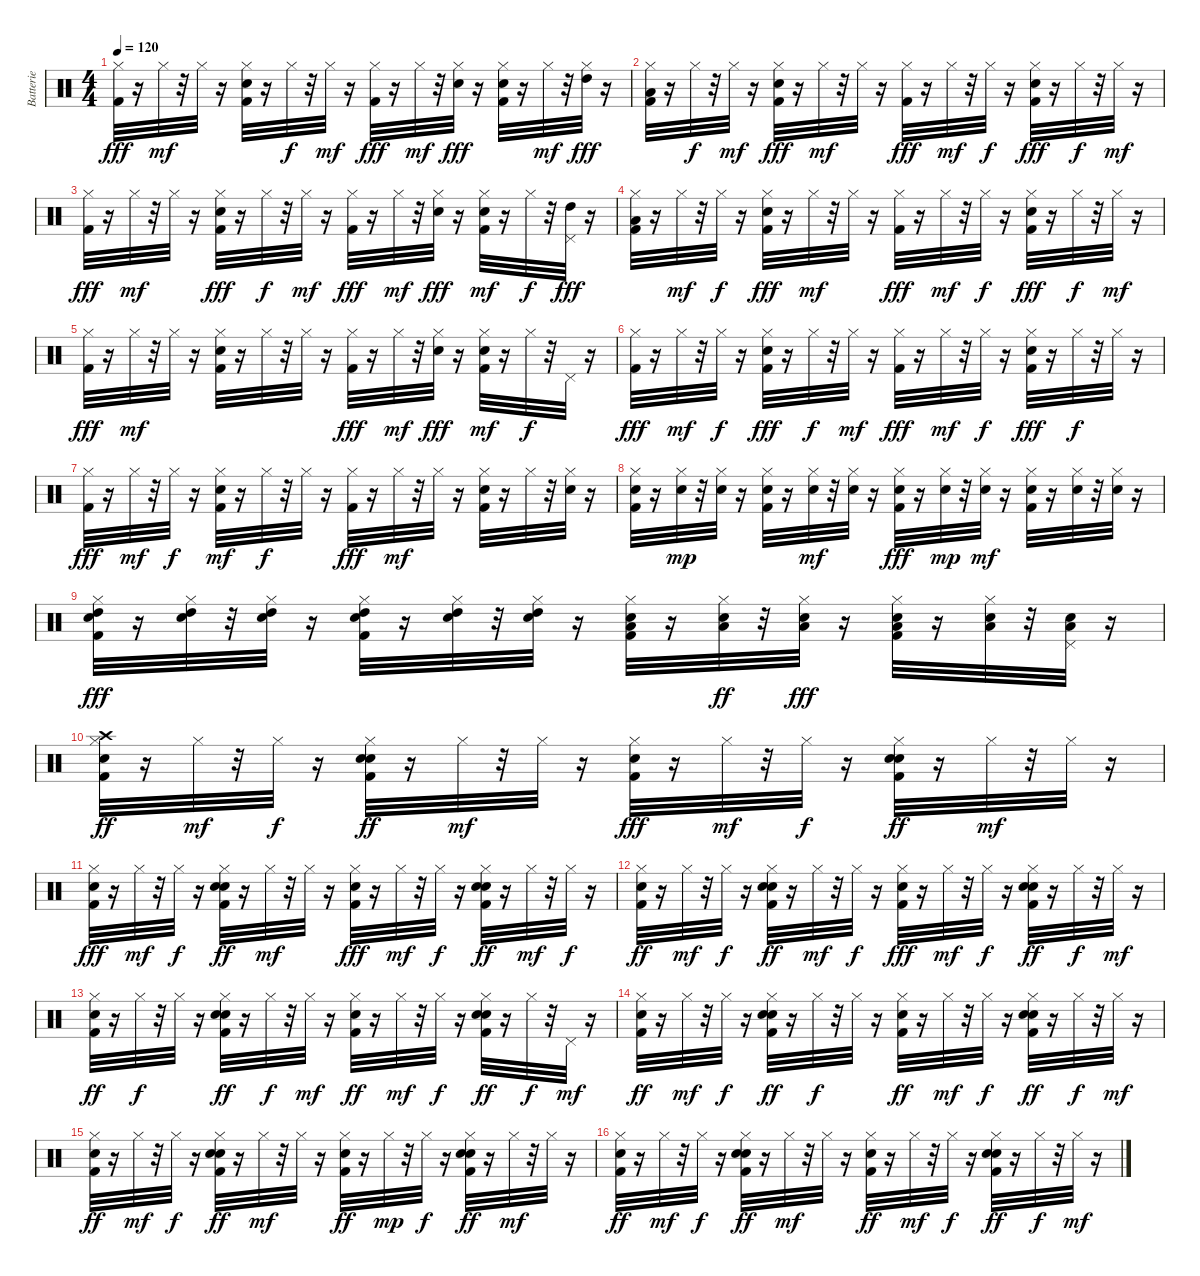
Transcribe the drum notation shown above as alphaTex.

\track ("Batterie" "Batterie") {instrument percussion}
\staff {score}
\articulation defaults
\ts (4 4)
\tempo 120
\clef neutral
\ks c
("Kick (hit) 2" "Hi-Hat (closed)").32{dy fff} r.16 "Hi-Hat (closed)".32{dy mf} r.32 "Hi-Hat (closed)".32 r.16 ("Kick (hit) 2" "Snare (hit) 2" "Hi-Hat (closed)").32 r.16 "Hi-Hat (closed)".32{dy f} r.32 "Hi-Hat (closed)".32{dy mf} r.16 ("Kick (hit) 2" "Hi-Hat (closed)").32{dy fff} r.16 "Hi-Hat (closed)".32{dy mf} r.32 ("Snare (hit) 2" "Hi-Hat (closed)").32{dy fff} r.16 ("Kick (hit) 2" "Snare (hit) 2" "Hi-Hat (closed)").32 r.16 "Hi-Hat (closed)".32{dy mf} r.32 ("Hi-Hat (closed)" "High Tom (hit)").32{dy fff} r.16 |
("Kick (hit) 2" "Hi-Hat (closed)" "Low Floor Tom (hit)").32 r.16 "Hi-Hat (closed)".32{dy f} r.32 "Hi-Hat (closed)".32{dy mf} r.16 ("Kick (hit) 2" "Snare (hit) 2" "Hi-Hat (closed)").32{dy fff} r.16 "Hi-Hat (closed)".32{dy mf} r.32 "Hi-Hat (closed)".32 r.16 ("Kick (hit) 2" "Hi-Hat (closed)").32{dy fff} r.16 "Hi-Hat (closed)".32{dy mf} r.32 "Hi-Hat (closed)".32{dy f} r.16 ("Kick (hit) 2" "Snare (hit) 2" "Hi-Hat (closed)").32{dy fff} r.16 "Hi-Hat (closed)".32{dy f} r.32 "Hi-Hat (closed)".32{dy mf} r.16 |
("Kick (hit) 2" "Hi-Hat (closed)").32{dy fff} r.16 "Hi-Hat (closed)".32{dy mf} r.32 "Hi-Hat (closed)".32 r.16 ("Kick (hit) 2" "Snare (hit) 2" "Hi-Hat (closed)").32{dy fff} r.16 "Hi-Hat (closed)".32{dy f} r.32 "Hi-Hat (closed)".32{dy mf} r.16 ("Kick (hit) 2" "Hi-Hat (closed)").32{dy fff} r.16 "Hi-Hat (closed)".32{dy mf} r.32 ("Snare (hit) 2" "Hi-Hat (closed)").32{dy fff} r.16 ("Kick (hit) 2" "Snare (hit) 2" "Hi-Hat (closed)").32{dy mf} r.16 "Hi-Hat (closed)".32{dy f} r.32 ("Pedal Hi-Hat (hit)" "High Tom (hit)").32{dy fff} r.16 |
("Kick (hit) 2" "Hi-Hat (closed)" "Low Floor Tom (hit)").32 r.16 "Hi-Hat (closed)".32{dy mf} r.32 "Hi-Hat (closed)".32{dy f} r.16 ("Kick (hit) 2" "Snare (hit) 2" "Hi-Hat (closed)").32{dy fff} r.16 "Hi-Hat (closed)".32{dy mf} r.32 "Hi-Hat (closed)".32 r.16 ("Kick (hit) 2" "Hi-Hat (closed)").32{dy fff} r.16 "Hi-Hat (closed)".32{dy mf} r.32 "Hi-Hat (closed)".32{dy f} r.16 ("Kick (hit) 2" "Snare (hit) 2" "Hi-Hat (closed)").32{dy fff} r.16 "Hi-Hat (closed)".32{dy f} r.32 "Hi-Hat (closed)".32{dy mf} r.16 |
("Kick (hit) 2" "Hi-Hat (closed)").32{dy fff} r.16 "Hi-Hat (closed)".32{dy mf} r.32 "Hi-Hat (closed)".32 r.16 ("Kick (hit) 2" "Snare (hit) 2" "Hi-Hat (closed)").32 r.16 "Hi-Hat (closed)".32 r.32 "Hi-Hat (closed)".32 r.16 ("Kick (hit) 2" "Hi-Hat (closed)").32{dy fff} r.16 "Hi-Hat (closed)".32{dy mf} r.32 ("Snare (hit) 2" "Hi-Hat (closed)").32{dy fff} r.16 ("Kick (hit) 2" "Snare (hit) 2" "Hi-Hat (closed)").32{dy mf} r.16 "Hi-Hat (closed)".32{dy f} r.32 "Pedal Hi-Hat (hit)".32 r.16 |
("Kick (hit) 2" "Hi-Hat (closed)").32{dy fff} r.16 "Hi-Hat (closed)".32{dy mf} r.32 "Hi-Hat (closed)".32{dy f} r.16 ("Kick (hit) 2" "Snare (hit) 2" "Hi-Hat (closed)").32{dy fff} r.16 "Hi-Hat (closed)".32{dy f} r.32 "Hi-Hat (closed)".32{dy mf} r.16 ("Kick (hit) 2" "Hi-Hat (closed)").32{dy fff} r.16 "Hi-Hat (closed)".32{dy mf} r.32 "Hi-Hat (closed)".32{dy f} r.16 ("Kick (hit) 2" "Snare (hit) 2" "Hi-Hat (closed)").32{dy fff} r.16 "Hi-Hat (closed)".32{dy f} r.32 "Hi-Hat (closed)".32 r.16 |
("Kick (hit) 2" "Hi-Hat (closed)").32{dy fff} r.16 "Hi-Hat (closed)".32{dy mf} r.32 "Hi-Hat (closed)".32{dy f} r.16 ("Kick (hit) 2" "Snare (hit) 2" "Hi-Hat (closed)").32{dy mf} r.16 "Hi-Hat (closed)".32{dy f} r.32 "Hi-Hat (closed)".32 r.16 ("Kick (hit) 2" "Hi-Hat (closed)").32{dy fff} r.16 "Hi-Hat (closed)".32{dy mf} r.32 "Hi-Hat (closed)".32 r.16 ("Kick (hit) 2" "Snare (hit) 2" "Hi-Hat (closed)").32 r.16 "Hi-Hat (closed)".32 r.32 ("Snare (hit) 2" "Hi-Hat (closed)").32 r.16 |
("Kick (hit) 2" "Snare (hit) 2" "Hi-Hat (closed)").32 r.16 ("Snare (hit) 2" "Hi-Hat (closed)").32{dy mp} r.32 ("Snare (hit) 2" "Hi-Hat (closed)").32 r.16 ("Kick (hit) 2" "Snare (hit) 2" "Hi-Hat (closed)").32 r.16 ("Snare (hit) 2" "Hi-Hat (closed)").32{dy mf} r.32 ("Snare (hit) 2" "Hi-Hat (closed)").32 r.16 ("Kick (hit) 2" "Snare (hit) 2" "Hi-Hat (closed)").32{dy fff} r.16 ("Snare (hit) 2" "Hi-Hat (closed)").32{dy mp} r.32 ("Snare (hit) 2" "Hi-Hat (closed)").32{dy mf} r.16 ("Kick (hit) 2" "Snare (hit) 2" "Hi-Hat (closed)").32 r.16 ("Snare (hit) 2" "Hi-Hat (closed)").32 r.32 ("Snare (hit) 2" "Hi-Hat (closed)").32 r.16 |
("Kick (hit) 2" "Snare (hit) 2" "Hi-Hat (closed)" "High Tom (hit)").32{dy fff} r.16 ("Snare (hit) 2" "Hi-Hat (closed)" "High Tom (hit)").32 r.32 ("Snare (hit) 2" "Hi-Hat (closed)" "High Tom (hit)").32 r.16 ("Kick (hit) 2" "Snare (hit) 2" "Hi-Hat (closed)" "High Tom (hit)").32 r.16 ("Snare (hit) 2" "Hi-Hat (closed)" "High Tom (hit)").32 r.32 ("Snare (hit) 2" "Hi-Hat (closed)" "High Tom (hit)").32 r.16 ("Kick (hit) 2" "Snare (hit) 2" "Hi-Hat (closed)" "Low Tom (hit)").32 r.16 ("Snare (hit) 2" "Hi-Hat (closed)" "Low Tom (hit)").32{dy ff} r.32 ("Snare (hit) 2" "Hi-Hat (closed)" "Low Tom (hit)").32{dy fff} r.16 ("Kick (hit) 2" "Snare (hit) 2" "Hi-Hat (closed)" "Low Floor Tom (hit)").32 r.16 ("Snare (hit) 2" "Hi-Hat (closed)" "Low Floor Tom (hit)").32 r.32 ("Snare (hit) 2" "Pedal Hi-Hat (hit)" "Low Floor Tom (hit)").32 r.16 |
("Kick (hit) 2" "Hi-Hat (closed)" "Hand Clap (hit)" "Crash high (hit)").32{dy ff} r.16 "Hi-Hat (closed)".32{dy mf} r.32 "Hi-Hat (closed)".32{dy f} r.16 ("Kick (hit) 2" "Snare (hit) 2" "Hi-Hat (closed)" "Hand Clap (hit)").32{dy ff} r.16 "Hi-Hat (closed)".32{dy mf} r.32 "Hi-Hat (closed)".32 r.16 ("Kick (hit) 2" "Hi-Hat (closed)" "Hand Clap (hit)").32{dy fff} r.16 "Hi-Hat (closed)".32{dy mf} r.32 "Hi-Hat (closed)".32{dy f} r.16 ("Kick (hit) 2" "Snare (hit) 2" "Hi-Hat (closed)" "Hand Clap (hit)").32{dy ff} r.16 "Hi-Hat (closed)".32{dy mf} r.32 "Hi-Hat (closed)".32 r.16 |
("Kick (hit) 2" "Hi-Hat (closed)" "Hand Clap (hit)").32{dy fff} r.16 "Hi-Hat (closed)".32{dy mf} r.32 "Hi-Hat (closed)".32{dy f} r.16 ("Kick (hit) 2" "Snare (hit) 2" "Hi-Hat (closed)" "Hand Clap (hit)").32{dy ff} r.16 "Hi-Hat (closed)".32{dy mf} r.32 "Hi-Hat (closed)".32 r.16 ("Kick (hit) 2" "Hi-Hat (closed)" "Hand Clap (hit)").32{dy fff} r.16 "Hi-Hat (closed)".32{dy mf} r.32 "Hi-Hat (closed)".32{dy f} r.16 ("Kick (hit) 2" "Snare (hit) 2" "Hi-Hat (closed)" "Hand Clap (hit)").32{dy ff} r.16 "Hi-Hat (closed)".32{dy mf} r.32 "Hi-Hat (closed)".32{dy f} r.16 |
("Kick (hit) 2" "Hi-Hat (closed)" "Hand Clap (hit)").32{dy ff} r.16 "Hi-Hat (closed)".32{dy mf} r.32 "Hi-Hat (closed)".32{dy f} r.16 ("Kick (hit) 2" "Snare (hit) 2" "Hi-Hat (closed)" "Hand Clap (hit)").32{dy ff} r.16 "Hi-Hat (closed)".32{dy mf} r.32 "Hi-Hat (closed)".32{dy f} r.16 ("Kick (hit) 2" "Hi-Hat (closed)" "Hand Clap (hit)").32{dy fff} r.16 "Hi-Hat (closed)".32{dy mf} r.32 "Hi-Hat (closed)".32{dy f} r.16 ("Kick (hit) 2" "Snare (hit) 2" "Hi-Hat (closed)" "Hand Clap (hit)").32{dy ff} r.16 "Hi-Hat (closed)".32{dy f} r.32 "Hi-Hat (closed)".32{dy mf} r.16 |
("Kick (hit) 2" "Hi-Hat (closed)" "Hand Clap (hit)").32{dy ff} r.16 "Hi-Hat (closed)".32{dy f} r.32 "Hi-Hat (closed)".32 r.16 ("Kick (hit) 2" "Snare (hit) 2" "Hi-Hat (closed)" "Hand Clap (hit)").32{dy ff} r.16 "Hi-Hat (closed)".32{dy f} r.32 "Hi-Hat (closed)".32{dy mf} r.16 ("Kick (hit) 2" "Hi-Hat (closed)" "Hand Clap (hit)").32{dy ff} r.16 "Hi-Hat (closed)".32{dy mf} r.32 "Hi-Hat (closed)".32{dy f} r.16 ("Kick (hit) 2" "Snare (hit) 2" "Hi-Hat (closed)" "Hand Clap (hit)").32{dy ff} r.16 "Hi-Hat (closed)".32{dy f} r.32 "Pedal Hi-Hat (hit)".32{dy mf} r.16 |
("Kick (hit) 2" "Hi-Hat (closed)" "Hand Clap (hit)").32{dy ff} r.16 "Hi-Hat (closed)".32{dy mf} r.32 "Hi-Hat (closed)".32{dy f} r.16 ("Kick (hit) 2" "Snare (hit) 2" "Hi-Hat (closed)" "Hand Clap (hit)").32{dy ff} r.16 "Hi-Hat (closed)".32{dy f} r.32 "Hi-Hat (closed)".32 r.16 ("Kick (hit) 2" "Hi-Hat (closed)" "Hand Clap (hit)").32{dy ff} r.16 "Hi-Hat (closed)".32{dy mf} r.32 "Hi-Hat (closed)".32{dy f} r.16 ("Kick (hit) 2" "Snare (hit) 2" "Hi-Hat (closed)" "Hand Clap (hit)").32{dy ff} r.16 "Hi-Hat (closed)".32{dy f} r.32 "Hi-Hat (closed)".32{dy mf} r.16 |
("Kick (hit) 2" "Hi-Hat (closed)" "Hand Clap (hit)").32{dy ff} r.16 "Hi-Hat (closed)".32{dy mf} r.32 "Hi-Hat (closed)".32{dy f} r.16 ("Kick (hit) 2" "Snare (hit) 2" "Hi-Hat (closed)" "Hand Clap (hit)").32{dy ff} r.16 "Hi-Hat (closed)".32{dy mf} r.32 "Hi-Hat (closed)".32 r.16 ("Kick (hit) 2" "Hi-Hat (closed)" "Hand Clap (hit)").32{dy ff} r.16 "Hi-Hat (closed)".32{dy mp} r.32 "Hi-Hat (closed)".32{dy f} r.16 ("Kick (hit) 2" "Snare (hit) 2" "Hi-Hat (closed)" "Hand Clap (hit)").32{dy ff} r.16 "Hi-Hat (closed)".32{dy mf} r.32 "Hi-Hat (closed)".32 r.16 |
("Kick (hit) 2" "Hi-Hat (closed)" "Hand Clap (hit)").32{dy ff} r.16 "Hi-Hat (closed)".32{dy mf} r.32 "Hi-Hat (closed)".32{dy f} r.16 ("Kick (hit) 2" "Snare (hit) 2" "Hi-Hat (closed)" "Hand Clap (hit)").32{dy ff} r.16 "Hi-Hat (closed)".32{dy mf} r.32 "Hi-Hat (closed)".32 r.16 ("Kick (hit) 2" "Hi-Hat (closed)" "Hand Clap (hit)").32{dy ff} r.16 "Hi-Hat (closed)".32{dy mf} r.32 "Hi-Hat (closed)".32{dy f} r.16 ("Kick (hit) 2" "Snare (hit) 2" "Hi-Hat (closed)" "Hand Clap (hit)").32{dy ff} r.16 "Hi-Hat (closed)".32{dy f} r.32 "Hi-Hat (closed)".32{dy mf} r.16
